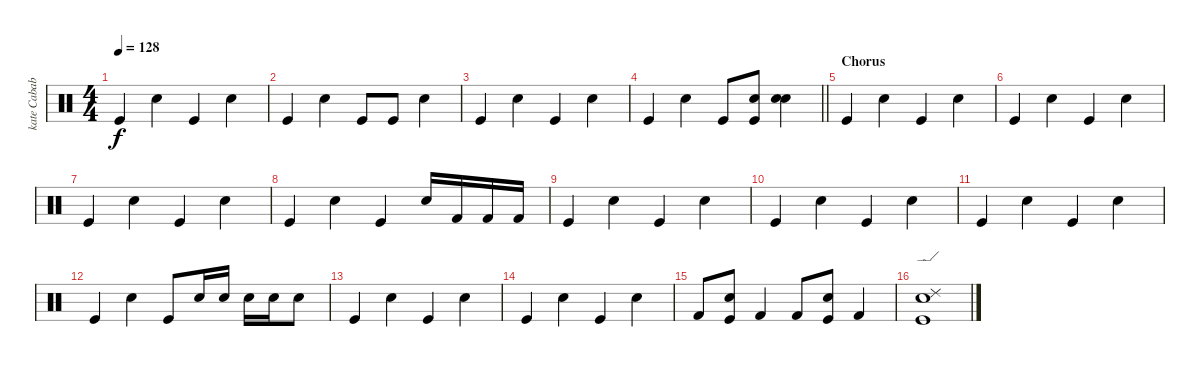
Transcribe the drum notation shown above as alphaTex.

\track ("kate Cababe" "kate Cabab") {instrument percussion}
\staff {score}
\articulation defaults
\ts (4 4)
\tempo 128
\clef neutral
\ks c "Kick (hit)".4{dy f} "Snare (hit) 2".4 "Kick (hit)".4 "Snare (hit) 2".4
|
"Kick (hit)".4 "Snare (hit) 2".4 "Kick (hit)".8 "Kick (hit)".8 "Snare (hit) 2".4 |
"Kick (hit)".4 "Snare (hit) 2".4 "Kick (hit)".4 "Snare (hit) 2".4 |
\barLineRight lightlight "Kick (hit)".4 "Snare (hit) 2".4 "Kick (hit)".8
("Kick (hit)" "Snare (hit) 2").8 ("Snare (hit) 2" "Snare (hit) 2").4 |
\section ("" "Chorus")
"Kick (hit)".4 "Snare (hit) 2".4 "Kick (hit)".4 "Snare (hit) 2".4 |
"Kick (hit)".4 "Snare (hit) 2".4 "Kick (hit)".4 "Snare (hit) 2".4 |
"Kick (hit)".4 "Snare (hit) 2".4 "Kick (hit)".4 "Snare (hit) 2".4 |
"Kick (hit)".4 "Snare (hit) 2".4 "Kick (hit)".4 "Snare (hit) 2".16 "Kick (hit) 2".16 "Kick (hit) 2".16 "Kick (hit) 2".16 |
"Kick (hit)".4 "Snare (hit) 2".4 "Kick (hit)".4 "Snare (hit) 2".4 |
"Kick (hit)".4 "Snare (hit) 2".4 "Kick (hit)".4 "Snare (hit) 2".4 |
"Kick (hit)".4 "Snare (hit) 2".4 "Kick (hit)".4 "Snare (hit) 2".4 |
"Kick (hit)".4 "Snare (hit) 2".4 "Kick (hit)".8 "Snare (hit) 2".16 "Snare (hit) 2".16 "Snare (hit) 2".16 "Snare (hit) 2".16 "Snare (hit) 2".8 |
"Kick (hit)".4 "Snare (hit) 2".4 "Kick (hit)".4 "Snare (hit) 2".4 |
"Kick (hit)".4 "Snare (hit) 2".4 "Kick (hit)".4 "Snare (hit) 2".4 |
"Kick (hit) 2".8 ("Kick (hit)" "Snare (hit) 2").8 "Kick (hit) 2".4 "Kick (hit) 2".8 ("Kick (hit)" "Snare (hit) 2").8 "Kick (hit) 2".4 |
("Kick (hit)" "Snare (hit) 2" "Ride (edge) 2").1
